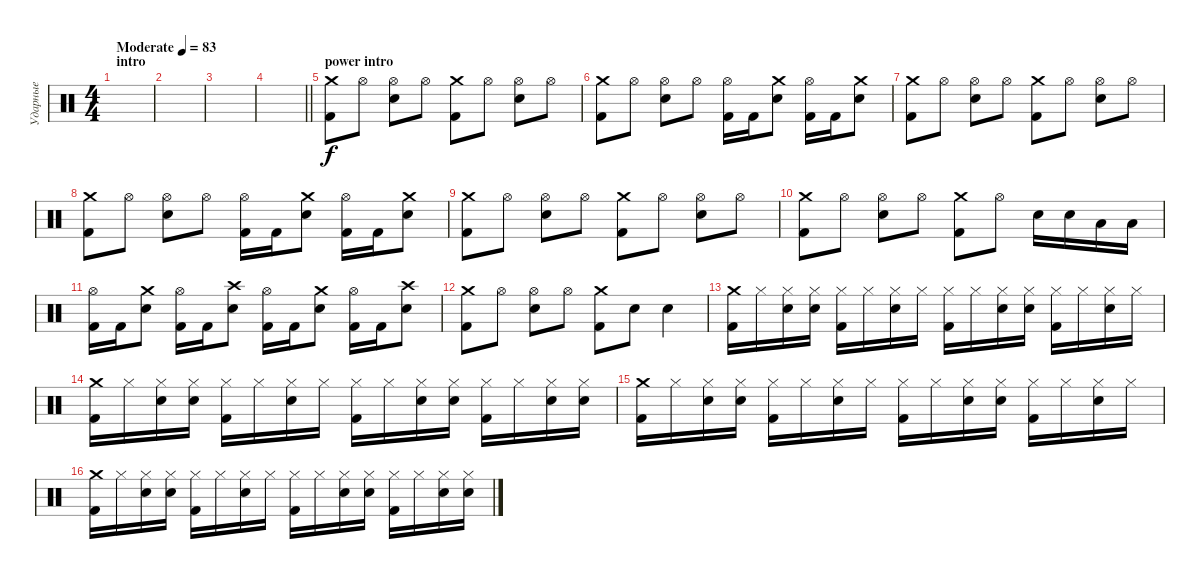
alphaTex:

\track ("Ударные" "Ударные") {instrument percussion}
\staff {score}
\articulation defaults
\ts (4 4)
\section ("" "intro")
\tempo (83 "Moderate")
\clef neutral
\ks c
|
|
|
\barLineRight lightlight
|
\section ("" "power intro")
("Crash medium (hit)" "Kick (hit) 2").8 "Hi-Hat (open)".8 ("Snare (hit) 2" "Hi-Hat (open)").8 "Hi-Hat (open)".8 ("Crash medium (hit)" "Kick (hit) 2").8 "Hi-Hat (open)".8 ("Snare (hit) 2" "Hi-Hat (open)").8 "Hi-Hat (open)".8 |
("Crash medium (hit)" "Kick (hit) 2").8 "Hi-Hat (open)".8 ("Snare (hit) 2" "Hi-Hat (open)").8 "Hi-Hat (open)".8 ("Hi-Hat (open)" "Kick (hit) 2").16 "Kick (hit) 2".16 ("Crash medium (hit)" "Snare (hit) 2").8 ("Hi-Hat (open)" "Kick (hit) 2").16 "Kick (hit) 2".16 ("Crash medium (hit)" "Snare (hit) 2").8 |
("Crash medium (hit)" "Kick (hit) 2").8 "Hi-Hat (open)".8 ("Snare (hit) 2" "Hi-Hat (open)").8 "Hi-Hat (open)".8 ("Crash medium (hit)" "Kick (hit) 2").8 "Hi-Hat (open)".8 ("Snare (hit) 2" "Hi-Hat (open)").8 "Hi-Hat (open)".8 |
("Crash medium (hit)" "Kick (hit) 2").8 "Hi-Hat (open)".8 ("Snare (hit) 2" "Hi-Hat (open)").8 "Hi-Hat (open)".8 ("Hi-Hat (open)" "Kick (hit) 2").16 "Kick (hit) 2".16 ("Crash medium (hit)" "Snare (hit) 2").8 ("Hi-Hat (open)" "Kick (hit) 2").16 "Kick (hit) 2".16 ("Crash medium (hit)" "Snare (hit) 2").8 |
("Crash medium (hit)" "Kick (hit) 2").8 "Hi-Hat (open)".8 ("Snare (hit) 2" "Hi-Hat (open)").8 "Hi-Hat (open)".8 ("Crash medium (hit)" "Kick (hit) 2").8 "Hi-Hat (open)".8 ("Snare (hit) 2" "Hi-Hat (open)").8 "Hi-Hat (open)".8 |
("Crash medium (hit)" "Kick (hit) 2").8 "Hi-Hat (open)".8 ("Snare (hit) 2" "Hi-Hat (open)").8 "Hi-Hat (open)".8 ("Crash medium (hit)" "Kick (hit) 2").8 "Hi-Hat (open)".8 "Snare (hit) 2".16 "Snare (hit) 2".16 "Low Tom (hit)".16 "Low Tom (hit)".16 |
("Hi-Hat (open)" "Kick (hit) 2").16 "Kick (hit) 2".16 ("Crash medium (hit)" "Snare (hit) 2").8 ("Hi-Hat (open)" "Kick (hit) 2").16 "Kick (hit) 2".16 ("Crash high (hit)" "Snare (hit) 2").8 ("Hi-Hat (open)" "Kick (hit) 2").16 "Kick (hit) 2".16 ("Crash medium (hit)" "Snare (hit) 2").8 ("Hi-Hat (open)" "Kick (hit) 2").16 "Kick (hit) 2".16 ("Crash high (hit)" "Snare (hit) 2").8 |
("Crash medium (hit)" "Kick (hit) 2").8 "Hi-Hat (open)".8 ("Snare (hit) 2" "Hi-Hat (open)").8 "Hi-Hat (open)".8 ("Crash medium (hit)" "Kick (hit) 2").8 "Snare (hit) 2".8 "Snare (hit) 2".4 |
("Crash medium (hit)" "Kick (hit) 2").16 "Hi-Hat (closed)".16 ("Hi-Hat (closed)" "Snare (hit) 2").16 ("Hi-Hat (closed)" "Snare (hit) 2").16 ("Hi-Hat (closed)" "Kick (hit) 2").16 "Hi-Hat (closed)".16 ("Hi-Hat (closed)" "Snare (hit) 2").16 "Hi-Hat (closed)".16 ("Hi-Hat (closed)" "Kick (hit) 2").16 "Hi-Hat (closed)".16 ("Hi-Hat (closed)" "Snare (hit) 2").16 ("Hi-Hat (closed)" "Snare (hit) 2").16 ("Hi-Hat (closed)" "Kick (hit) 2").16 "Hi-Hat (closed)".16 ("Hi-Hat (closed)" "Snare (hit) 2").16 "Hi-Hat (closed)".16 |
("Crash medium (hit)" "Kick (hit) 2").16 "Hi-Hat (closed)".16 ("Hi-Hat (closed)" "Snare (hit) 2").16 ("Hi-Hat (closed)" "Snare (hit) 2").16 ("Hi-Hat (closed)" "Kick (hit) 2").16 "Hi-Hat (closed)".16 ("Hi-Hat (closed)" "Snare (hit) 2").16 "Hi-Hat (closed)".16 ("Hi-Hat (closed)" "Kick (hit) 2").16 "Hi-Hat (closed)".16 ("Hi-Hat (closed)" "Snare (hit) 2").16 ("Hi-Hat (closed)" "Snare (hit) 2").16 ("Hi-Hat (closed)" "Kick (hit) 2").16 "Hi-Hat (closed)".16 ("Hi-Hat (closed)" "Snare (hit) 2").16 ("Hi-Hat (closed)" "Snare (hit) 2").16 |
("Crash medium (hit)" "Kick (hit) 2").16 "Hi-Hat (closed)".16 ("Hi-Hat (closed)" "Snare (hit) 2").16 ("Hi-Hat (closed)" "Snare (hit) 2").16 ("Hi-Hat (closed)" "Kick (hit) 2").16 "Hi-Hat (closed)".16 ("Hi-Hat (closed)" "Snare (hit) 2").16 "Hi-Hat (closed)".16 ("Hi-Hat (closed)" "Kick (hit) 2").16 "Hi-Hat (closed)".16 ("Hi-Hat (closed)" "Snare (hit) 2").16 ("Hi-Hat (closed)" "Snare (hit) 2").16 ("Hi-Hat (closed)" "Kick (hit) 2").16 "Hi-Hat (closed)".16 ("Hi-Hat (closed)" "Snare (hit) 2").16 "Hi-Hat (closed)".16 |
("Crash medium (hit)" "Kick (hit) 2").16 "Hi-Hat (closed)".16 ("Hi-Hat (closed)" "Snare (hit) 2").16 ("Hi-Hat (closed)" "Snare (hit) 2").16 ("Hi-Hat (closed)" "Kick (hit) 2").16 "Hi-Hat (closed)".16 ("Hi-Hat (closed)" "Snare (hit) 2").16 "Hi-Hat (closed)".16 ("Hi-Hat (closed)" "Kick (hit) 2").16 "Hi-Hat (closed)".16 ("Hi-Hat (closed)" "Snare (hit) 2").16 ("Hi-Hat (closed)" "Snare (hit) 2").16 ("Hi-Hat (closed)" "Kick (hit) 2").16 "Hi-Hat (closed)".16 ("Hi-Hat (closed)" "Snare (hit) 2").16 ("Hi-Hat (closed)" "Snare (hit) 2").16
